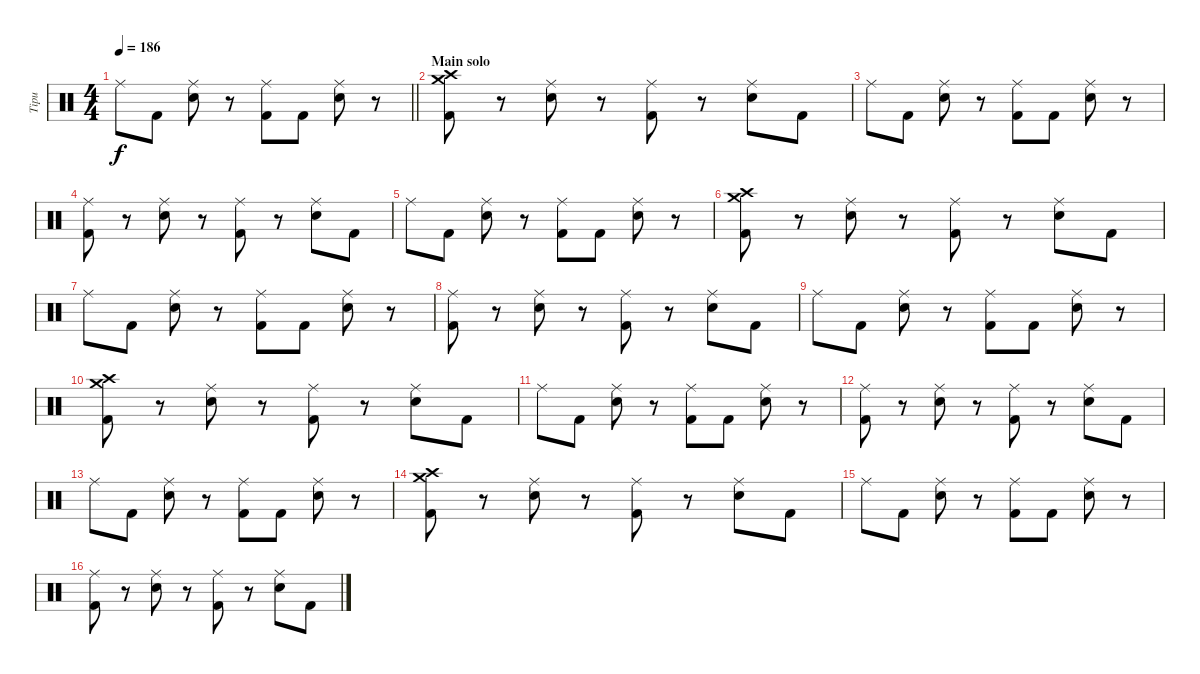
\track ("Tipu" "Tipu") {instrument percussion}
\staff {score}
\articulation defaults
\ts (4 4)
\tempo 186
\clef neutral
\barLineRight lightlight
\ks c "Ride (middle)".8{dy f} "Kick (hit) 2".8
("Ride (middle)" "Electric Snare (hit)").8 r.8 ("Ride (middle)" "Kick (hit) 2").8 "Kick (hit) 2".8 ("Ride (middle)" "Electric Snare (hit)").8 r.8 |
\section ("" "Main solo")
("Crash high (hit)" "Crash medium (hit)" "Kick (hit) 2").8 r.8 ("Ride (middle)" "Electric Snare (hit)").8 r.8 ("Ride (middle)" "Kick (hit) 2").8 r.8 ("Ride (middle)" "Electric Snare (hit)").8 "Kick (hit) 2".8 |
"Ride (middle)".8 "Kick (hit) 2".8 ("Ride (middle)" "Electric Snare (hit)").8 r.8 ("Ride (middle)" "Kick (hit) 2").8 "Kick (hit) 2".8 ("Ride (middle)" "Electric Snare (hit)").8 r.8 |
("Ride (middle)" "Kick (hit) 2").8 r.8 ("Ride (middle)" "Electric Snare (hit)").8 r.8 ("Ride (middle)" "Kick (hit) 2").8 r.8 ("Ride (middle)" "Electric Snare (hit)").8 "Kick (hit) 2".8 |
"Ride (middle)".8 "Kick (hit) 2".8 ("Ride (middle)" "Electric Snare (hit)").8 r.8 ("Ride (middle)" "Kick (hit) 2").8 "Kick (hit) 2".8 ("Ride (middle)" "Electric Snare (hit)").8 r.8 |
("Crash high (hit)" "Crash medium (hit)" "Kick (hit) 2").8 r.8 ("Ride (middle)" "Electric Snare (hit)").8 r.8 ("Ride (middle)" "Kick (hit) 2").8 r.8 ("Ride (middle)" "Electric Snare (hit)").8 "Kick (hit) 2".8 |
"Ride (middle)".8 "Kick (hit) 2".8 ("Ride (middle)" "Electric Snare (hit)").8 r.8 ("Ride (middle)" "Kick (hit) 2").8 "Kick (hit) 2".8 ("Ride (middle)" "Electric Snare (hit)").8 r.8 |
("Ride (middle)" "Kick (hit) 2").8 r.8 ("Ride (middle)" "Electric Snare (hit)").8 r.8 ("Ride (middle)" "Kick (hit) 2").8 r.8 ("Ride (middle)" "Electric Snare (hit)").8 "Kick (hit) 2".8 |
"Ride (middle)".8 "Kick (hit) 2".8 ("Ride (middle)" "Electric Snare (hit)").8 r.8 ("Ride (middle)" "Kick (hit) 2").8 "Kick (hit) 2".8 ("Ride (middle)" "Electric Snare (hit)").8 r.8 |
("Crash high (hit)" "Crash medium (hit)" "Kick (hit) 2").8 r.8 ("Ride (middle)" "Electric Snare (hit)").8 r.8 ("Ride (middle)" "Kick (hit) 2").8 r.8 ("Ride (middle)" "Electric Snare (hit)").8 "Kick (hit) 2".8 |
"Ride (middle)".8 "Kick (hit) 2".8 ("Ride (middle)" "Electric Snare (hit)").8 r.8 ("Ride (middle)" "Kick (hit) 2").8 "Kick (hit) 2".8 ("Ride (middle)" "Electric Snare (hit)").8 r.8 |
("Ride (middle)" "Kick (hit) 2").8 r.8 ("Ride (middle)" "Electric Snare (hit)").8 r.8 ("Ride (middle)" "Kick (hit) 2").8 r.8 ("Ride (middle)" "Electric Snare (hit)").8 "Kick (hit) 2".8 |
"Ride (middle)".8 "Kick (hit) 2".8 ("Ride (middle)" "Electric Snare (hit)").8 r.8 ("Ride (middle)" "Kick (hit) 2").8 "Kick (hit) 2".8 ("Ride (middle)" "Electric Snare (hit)").8 r.8 |
("Crash high (hit)" "Crash medium (hit)" "Kick (hit) 2").8 r.8 ("Ride (middle)" "Electric Snare (hit)").8 r.8 ("Ride (middle)" "Kick (hit) 2").8 r.8 ("Ride (middle)" "Electric Snare (hit)").8 "Kick (hit) 2".8 |
"Ride (middle)".8 "Kick (hit) 2".8 ("Ride (middle)" "Electric Snare (hit)").8 r.8 ("Ride (middle)" "Kick (hit) 2").8 "Kick (hit) 2".8 ("Ride (middle)" "Electric Snare (hit)").8 r.8 |
("Ride (middle)" "Kick (hit) 2").8 r.8 ("Ride (middle)" "Electric Snare (hit)").8 r.8 ("Ride (middle)" "Kick (hit) 2").8 r.8 ("Ride (middle)" "Electric Snare (hit)").8 "Kick (hit) 2".8
